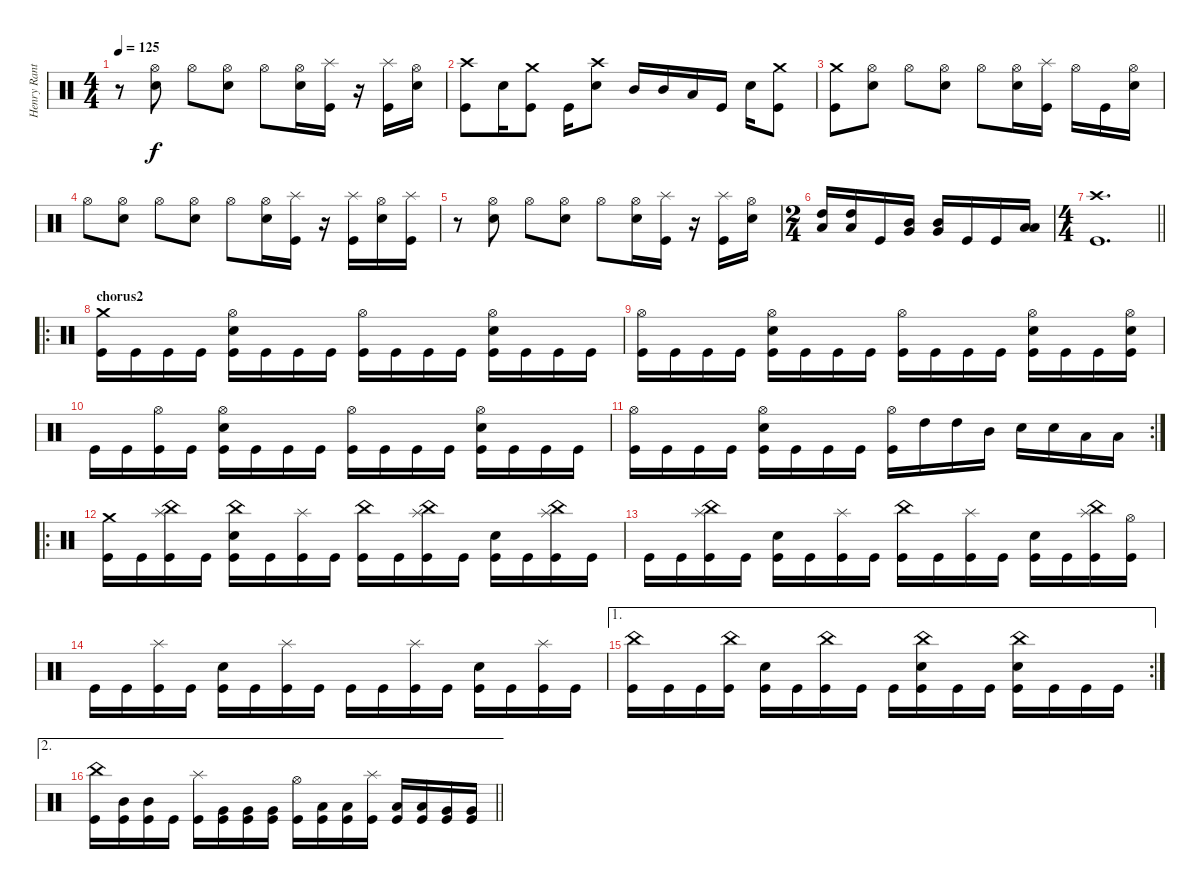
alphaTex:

\track ("Henry Ranta" "Henry Rant") {instrument percussion}
\staff {score}
\articulation defaults
\ts (4 4)
\tempo 125
\clef neutral
\ks c
r.8{dy f} ("Hi-Hat (open)" "Electric Snare (hit)").8 "Hi-Hat (open)".8 ("Hi-Hat (open)" "Electric Snare (hit)").8 "Hi-Hat (open)".8 ("Hi-Hat (open)" "Electric Snare (hit)").16 ("Splash (hit)" "Kick (hit)").16 r.16 ("Splash (hit)" "Kick (hit)").16 ("Hi-Hat (open)" "Electric Snare (hit)").16 |
("Crash high (hit)" "Kick (hit)").8 "Electric Snare (hit)".16 ("Crash medium (hit)" "Kick (hit)").8 "Kick (hit)".16 ("Crash high (hit)" "Electric Snare (hit)").8 "Mid Tom (hit)".16 "Mid Tom (hit)".16 "Low Tom (hit)".16 "Kick (hit)".16 "Electric Snare (hit)".16 ("Crash medium (hit)" "Kick (hit)").8 |
("Crash medium (hit)" "Kick (hit)").8 ("Hi-Hat (open)" "Electric Snare (hit)").8 "Hi-Hat (open)".8 ("Hi-Hat (open)" "Electric Snare (hit)").8 "Hi-Hat (open)".8 ("Hi-Hat (open)" "Electric Snare (hit)").16 ("Splash (hit)" "Kick (hit)").16 "Hi-Hat (open)".16 "Kick (hit)".16 ("Hi-Hat (open)" "Electric Snare (hit)").16 |
"Hi-Hat (open)".8 ("Hi-Hat (open)" "Electric Snare (hit)").8 "Hi-Hat (open)".8 ("Hi-Hat (open)" "Electric Snare (hit)").8 "Hi-Hat (open)".8 ("Hi-Hat (open)" "Electric Snare (hit)").16 ("Splash (hit)" "Kick (hit)").16 r.16 ("Splash (hit)" "Kick (hit)").16 ("Hi-Hat (open)" "Electric Snare (hit)").16 ("Splash (hit)" "Kick (hit)").16 |
r.8 ("Hi-Hat (open)" "Electric Snare (hit)").8 "Hi-Hat (open)".8 ("Hi-Hat (open)" "Electric Snare (hit)").8 "Hi-Hat (open)".8 ("Hi-Hat (open)" "Electric Snare (hit)").16 ("Splash (hit)" "Kick (hit)").16 r.16 ("Splash (hit)" "Kick (hit)").16 ("Hi-Hat (open)" "Electric Snare (hit)").16 |
\ts (2 4)
("High Tom (hit)" "Low Tom (hit)").16 ("High Tom (hit)" "Low Tom (hit)").16 "Kick (hit)".16 ("Mid Tom (hit)" "Very Low Tom (hit)").16 ("Mid Tom (hit)" "Very Low Tom (hit)").16 "Kick (hit)".16 "Kick (hit)".16 ("Low Tom (hit)" "Low Floor Tom (hit)").16 |
\ts (4 4)
\barLineRight lightlight
("Crash high (hit)" "Kick (hit)").1{d} |
\ro
\section ("" "chorus2")
("Crash medium (hit)" "Kick (hit)").16 "Kick (hit)".16 "Kick (hit)".16 "Kick (hit)".16 ("Hi-Hat (open)" "Electric Snare (hit)" "Kick (hit)").16 "Kick (hit)".16 "Kick (hit)".16 "Kick (hit)".16 ("Hi-Hat (open)" "Kick (hit)").16 "Kick (hit)".16 "Kick (hit)".16 "Kick (hit)".16 ("Hi-Hat (open)" "Electric Snare (hit)" "Kick (hit)").16 "Kick (hit)".16 "Kick (hit)".16 "Kick (hit)".16 |
("Hi-Hat (open)" "Kick (hit)").16 "Kick (hit)".16 "Kick (hit)".16 "Kick (hit)".16 ("Hi-Hat (open)" "Electric Snare (hit)" "Kick (hit)").16 "Kick (hit)".16 "Kick (hit)".16 "Kick (hit)".16 ("Hi-Hat (open)" "Kick (hit)").16 "Kick (hit)".16 "Kick (hit)".16 "Kick (hit)".16 ("Hi-Hat (open)" "Electric Snare (hit)" "Kick (hit)").16 "Kick (hit)".16 "Kick (hit)".16 ("Hi-Hat (open)" "Electric Snare (hit)" "Kick (hit)").16 |
"Kick (hit)".16 "Kick (hit)".16 ("Hi-Hat (open)" "Kick (hit)").16 "Kick (hit)".16 ("Hi-Hat (open)" "Electric Snare (hit)" "Kick (hit)").16 "Kick (hit)".16 "Kick (hit)".16 "Kick (hit)".16 ("Hi-Hat (open)" "Kick (hit)").16 "Kick (hit)".16 "Kick (hit)".16 "Kick (hit)".16 ("Hi-Hat (open)" "Electric Snare (hit)" "Kick (hit)").16 "Kick (hit)".16 "Kick (hit)".16 "Kick (hit)".16 |
\rc 2
("Hi-Hat (open)" "Kick (hit)").16 "Kick (hit)".16 "Kick (hit)".16 "Kick (hit)".16 ("Hi-Hat (open)" "Electric Snare (hit)" "Kick (hit)").16 "Kick (hit)".16 "Kick (hit)".16 "Kick (hit)".16 ("Hi-Hat (open)" "Kick (hit)").16 "High Tom (hit)".16 "High Tom (hit)".16 "Mid Tom (hit)".16 "Electric Snare (hit)".16 "Electric Snare (hit)".16 "Low Tom (hit)".16 "Low Tom (hit)".16 |
\ro
("Crash medium (hit)" "Kick (hit)").16 "Kick (hit)".16 ("Splash (hit)" "China (hit)" "Kick (hit)").16 "Kick (hit)".16 ("China (hit)" "Electric Snare (hit)" "Kick (hit)").16 "Kick (hit)".16 ("Splash (hit)" "Kick (hit)").16 "Kick (hit)".16 ("China (hit)" "Kick (hit)").16 "Kick (hit)".16 ("Splash (hit)" "China (hit)" "Kick (hit)").16 "Kick (hit)".16 ("Electric Snare (hit)" "Kick (hit)").16 "Kick (hit)".16 ("Splash (hit)" "China (hit)" "Kick (hit)").16 "Kick (hit)".16 |
"Kick (hit)".16 "Kick (hit)".16 ("Splash (hit)" "China (hit)" "Kick (hit)").16 "Kick (hit)".16 ("Electric Snare (hit)" "Kick (hit)").16 "Kick (hit)".16 ("Splash (hit)" "Kick (hit)").16 "Kick (hit)".16 ("China (hit)" "Kick (hit)").16 "Kick (hit)".16 ("Splash (hit)" "Kick (hit)").16 "Kick (hit)".16 ("Electric Snare (hit)" "Kick (hit)").16 "Kick (hit)".16 ("Splash (hit)" "China (hit)" "Kick (hit)").16 ("Hi-Hat (open)" "Kick (hit)").16 |
"Kick (hit)".16 "Kick (hit)".16 ("Splash (hit)" "Kick (hit)").16 "Kick (hit)".16 ("Electric Snare (hit)" "Kick (hit)").16 "Kick (hit)".16 ("Splash (hit)" "Kick (hit)").16 "Kick (hit)".16 "Kick (hit)".16 "Kick (hit)".16 ("Splash (hit)" "Kick (hit)").16 "Kick (hit)".16 ("Electric Snare (hit)" "Kick (hit)").16 "Kick (hit)".16 ("Splash (hit)" "Kick (hit)").16 "Kick (hit)".16 |
\ae 1
\rc 2
("China (hit)" "Kick (hit)").16 "Kick (hit)".16 "Kick (hit)".16 ("China (hit)" "Kick (hit)").16 ("Electric Snare (hit)" "Kick (hit)").16 "Kick (hit)".16 ("China (hit)" "Kick (hit)").16 "Kick (hit)".16 "Kick (hit)".16 ("China (hit)" "Electric Snare (hit)" "Kick (hit)").16 "Kick (hit)".16 "Kick (hit)".16 ("China (hit)" "Electric Snare (hit)" "Kick (hit)").16 "Kick (hit)".16 "Kick (hit)".16 "Kick (hit)".16 |
\ae 2
\barLineRight lightlight
("China (hit)" "Kick (hit)").16 ("Mid Tom (hit)" "Kick (hit)").16 ("Mid Tom (hit)" "Kick (hit)").16 "Kick (hit)".16 ("Splash (hit)" "Kick (hit)").16 ("Very Low Tom (hit)" "Kick (hit)").16 ("Very Low Tom (hit)" "Kick (hit)").16 ("Very Low Tom (hit)" "Kick (hit)").16 ("Hi-Hat (open)" "Kick (hit)").16 ("Low Tom (hit)" "Kick (hit)").16 ("Low Tom (hit)" "Kick (hit)").16 ("Splash (hit)" "Kick (hit)").16 ("Low Tom (hit)" "Kick (hit)").16 ("Low Tom (hit)" "Kick (hit)").16 ("Very Low Tom (hit)" "Kick (hit)").16 ("Very Low Tom (hit)" "Kick (hit)").16
